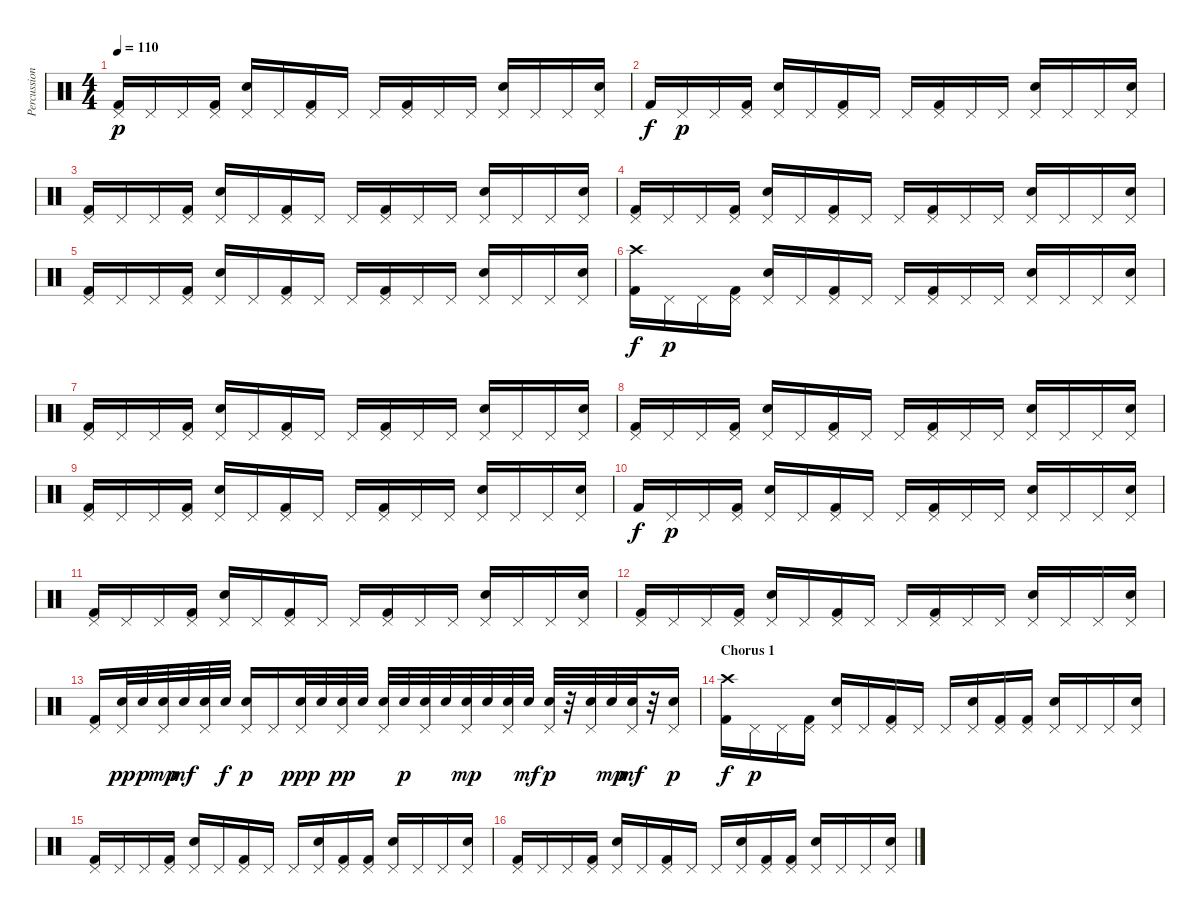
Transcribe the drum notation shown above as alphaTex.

\track ("Percussion" "Percussion") {instrument percussion}
\staff {score}
\articulation defaults
\ts (4 4)
\tempo 110
\clef neutral
\ks c
("Pedal Hi-Hat (hit)" "Kick (hit) 2").16{dy p} "Pedal Hi-Hat (hit)".16 "Pedal Hi-Hat (hit)".16 ("Pedal Hi-Hat (hit)" "Kick (hit) 2").16 ("Pedal Hi-Hat (hit)" "Electric Snare (hit)").16 "Pedal Hi-Hat (hit)".16 ("Pedal Hi-Hat (hit)" "Kick (hit) 2").16 "Pedal Hi-Hat (hit)".16 "Pedal Hi-Hat (hit)".16 ("Pedal Hi-Hat (hit)" "Kick (hit) 2").16 "Pedal Hi-Hat (hit)".16 "Pedal Hi-Hat (hit)".16 ("Pedal Hi-Hat (hit)" "Electric Snare (hit)").16 "Pedal Hi-Hat (hit)".16 "Pedal Hi-Hat (hit)".16 ("Pedal Hi-Hat (hit)" "Electric Snare (hit)").16 |
"Kick (hit) 2".16{dy f} "Pedal Hi-Hat (hit)".16{dy p} "Pedal Hi-Hat (hit)".16 ("Pedal Hi-Hat (hit)" "Kick (hit) 2").16 ("Pedal Hi-Hat (hit)" "Electric Snare (hit)").16 "Pedal Hi-Hat (hit)".16 ("Pedal Hi-Hat (hit)" "Kick (hit) 2").16 "Pedal Hi-Hat (hit)".16 "Pedal Hi-Hat (hit)".16 ("Pedal Hi-Hat (hit)" "Kick (hit) 2").16 "Pedal Hi-Hat (hit)".16 "Pedal Hi-Hat (hit)".16 ("Pedal Hi-Hat (hit)" "Electric Snare (hit)").16 "Pedal Hi-Hat (hit)".16 "Pedal Hi-Hat (hit)".16 ("Pedal Hi-Hat (hit)" "Electric Snare (hit)").16 |
("Pedal Hi-Hat (hit)" "Kick (hit) 2").16 "Pedal Hi-Hat (hit)".16 "Pedal Hi-Hat (hit)".16 ("Pedal Hi-Hat (hit)" "Kick (hit) 2").16 ("Pedal Hi-Hat (hit)" "Electric Snare (hit)").16 "Pedal Hi-Hat (hit)".16 ("Pedal Hi-Hat (hit)" "Kick (hit) 2").16 "Pedal Hi-Hat (hit)".16 "Pedal Hi-Hat (hit)".16 ("Pedal Hi-Hat (hit)" "Kick (hit) 2").16 "Pedal Hi-Hat (hit)".16 "Pedal Hi-Hat (hit)".16 ("Pedal Hi-Hat (hit)" "Electric Snare (hit)").16 "Pedal Hi-Hat (hit)".16 "Pedal Hi-Hat (hit)".16 ("Pedal Hi-Hat (hit)" "Electric Snare (hit)").16 |
("Pedal Hi-Hat (hit)" "Kick (hit) 2").16 "Pedal Hi-Hat (hit)".16 "Pedal Hi-Hat (hit)".16 ("Pedal Hi-Hat (hit)" "Kick (hit) 2").16 ("Pedal Hi-Hat (hit)" "Electric Snare (hit)").16 "Pedal Hi-Hat (hit)".16 ("Pedal Hi-Hat (hit)" "Kick (hit) 2").16 "Pedal Hi-Hat (hit)".16 "Pedal Hi-Hat (hit)".16 ("Pedal Hi-Hat (hit)" "Kick (hit) 2").16 "Pedal Hi-Hat (hit)".16 "Pedal Hi-Hat (hit)".16 ("Pedal Hi-Hat (hit)" "Electric Snare (hit)").16 "Pedal Hi-Hat (hit)".16 "Pedal Hi-Hat (hit)".16 ("Pedal Hi-Hat (hit)" "Electric Snare (hit)").16 |
("Pedal Hi-Hat (hit)" "Kick (hit) 2").16 "Pedal Hi-Hat (hit)".16 "Pedal Hi-Hat (hit)".16 ("Pedal Hi-Hat (hit)" "Kick (hit) 2").16 ("Pedal Hi-Hat (hit)" "Electric Snare (hit)").16 "Pedal Hi-Hat (hit)".16 ("Pedal Hi-Hat (hit)" "Kick (hit) 2").16 "Pedal Hi-Hat (hit)".16 "Pedal Hi-Hat (hit)".16 ("Pedal Hi-Hat (hit)" "Kick (hit) 2").16 "Pedal Hi-Hat (hit)".16 "Pedal Hi-Hat (hit)".16 ("Pedal Hi-Hat (hit)" "Electric Snare (hit)").16 "Pedal Hi-Hat (hit)".16 "Pedal Hi-Hat (hit)".16 ("Pedal Hi-Hat (hit)" "Electric Snare (hit)").16 |
("Crash high (hit)" "Kick (hit) 2").16{dy f volume 16} "Pedal Hi-Hat (hit)".16{dy p} "Pedal Hi-Hat (hit)".16 ("Pedal Hi-Hat (hit)" "Kick (hit) 2").16 ("Pedal Hi-Hat (hit)" "Electric Snare (hit)").16 "Pedal Hi-Hat (hit)".16 ("Pedal Hi-Hat (hit)" "Kick (hit) 2").16 "Pedal Hi-Hat (hit)".16 "Pedal Hi-Hat (hit)".16 ("Pedal Hi-Hat (hit)" "Kick (hit) 2").16 "Pedal Hi-Hat (hit)".16 "Pedal Hi-Hat (hit)".16 ("Pedal Hi-Hat (hit)" "Electric Snare (hit)").16 "Pedal Hi-Hat (hit)".16 "Pedal Hi-Hat (hit)".16 ("Pedal Hi-Hat (hit)" "Electric Snare (hit)").16 |
("Pedal Hi-Hat (hit)" "Kick (hit) 2").16 "Pedal Hi-Hat (hit)".16 "Pedal Hi-Hat (hit)".16 ("Pedal Hi-Hat (hit)" "Kick (hit) 2").16 ("Pedal Hi-Hat (hit)" "Electric Snare (hit)").16 "Pedal Hi-Hat (hit)".16 ("Pedal Hi-Hat (hit)" "Kick (hit) 2").16 "Pedal Hi-Hat (hit)".16 "Pedal Hi-Hat (hit)".16 ("Pedal Hi-Hat (hit)" "Kick (hit) 2").16 "Pedal Hi-Hat (hit)".16 "Pedal Hi-Hat (hit)".16 ("Pedal Hi-Hat (hit)" "Electric Snare (hit)").16 "Pedal Hi-Hat (hit)".16 "Pedal Hi-Hat (hit)".16 ("Pedal Hi-Hat (hit)" "Electric Snare (hit)").16 |
("Pedal Hi-Hat (hit)" "Kick (hit) 2").16 "Pedal Hi-Hat (hit)".16 "Pedal Hi-Hat (hit)".16 ("Pedal Hi-Hat (hit)" "Kick (hit) 2").16 ("Pedal Hi-Hat (hit)" "Electric Snare (hit)").16 "Pedal Hi-Hat (hit)".16 ("Pedal Hi-Hat (hit)" "Kick (hit) 2").16 "Pedal Hi-Hat (hit)".16 "Pedal Hi-Hat (hit)".16 ("Pedal Hi-Hat (hit)" "Kick (hit) 2").16 "Pedal Hi-Hat (hit)".16 "Pedal Hi-Hat (hit)".16 ("Pedal Hi-Hat (hit)" "Electric Snare (hit)").16 "Pedal Hi-Hat (hit)".16 "Pedal Hi-Hat (hit)".16 ("Pedal Hi-Hat (hit)" "Electric Snare (hit)").16 |
("Pedal Hi-Hat (hit)" "Kick (hit) 2").16 "Pedal Hi-Hat (hit)".16 "Pedal Hi-Hat (hit)".16 ("Pedal Hi-Hat (hit)" "Kick (hit) 2").16 ("Pedal Hi-Hat (hit)" "Electric Snare (hit)").16 "Pedal Hi-Hat (hit)".16 ("Pedal Hi-Hat (hit)" "Kick (hit) 2").16 "Pedal Hi-Hat (hit)".16 "Pedal Hi-Hat (hit)".16 ("Pedal Hi-Hat (hit)" "Kick (hit) 2").16 "Pedal Hi-Hat (hit)".16 "Pedal Hi-Hat (hit)".16 ("Pedal Hi-Hat (hit)" "Electric Snare (hit)").16 "Pedal Hi-Hat (hit)".16 "Pedal Hi-Hat (hit)".16 ("Pedal Hi-Hat (hit)" "Electric Snare (hit)").16 |
"Kick (hit) 2".16{dy f} "Pedal Hi-Hat (hit)".16{dy p} "Pedal Hi-Hat (hit)".16 ("Pedal Hi-Hat (hit)" "Kick (hit) 2").16 ("Pedal Hi-Hat (hit)" "Electric Snare (hit)").16 "Pedal Hi-Hat (hit)".16 ("Pedal Hi-Hat (hit)" "Kick (hit) 2").16 "Pedal Hi-Hat (hit)".16 "Pedal Hi-Hat (hit)".16 ("Pedal Hi-Hat (hit)" "Kick (hit) 2").16 "Pedal Hi-Hat (hit)".16 "Pedal Hi-Hat (hit)".16 ("Pedal Hi-Hat (hit)" "Electric Snare (hit)").16 "Pedal Hi-Hat (hit)".16 "Pedal Hi-Hat (hit)".16 ("Pedal Hi-Hat (hit)" "Electric Snare (hit)").16 |
("Pedal Hi-Hat (hit)" "Kick (hit) 2").16 "Pedal Hi-Hat (hit)".16 "Pedal Hi-Hat (hit)".16 ("Pedal Hi-Hat (hit)" "Kick (hit) 2").16 ("Pedal Hi-Hat (hit)" "Electric Snare (hit)").16 "Pedal Hi-Hat (hit)".16 ("Pedal Hi-Hat (hit)" "Kick (hit) 2").16 "Pedal Hi-Hat (hit)".16 "Pedal Hi-Hat (hit)".16 ("Pedal Hi-Hat (hit)" "Kick (hit) 2").16 "Pedal Hi-Hat (hit)".16 "Pedal Hi-Hat (hit)".16 ("Pedal Hi-Hat (hit)" "Electric Snare (hit)").16 "Pedal Hi-Hat (hit)".16 "Pedal Hi-Hat (hit)".16 ("Pedal Hi-Hat (hit)" "Electric Snare (hit)").16 |
("Pedal Hi-Hat (hit)" "Kick (hit) 2").16 "Pedal Hi-Hat (hit)".16 "Pedal Hi-Hat (hit)".16 ("Pedal Hi-Hat (hit)" "Kick (hit) 2").16 ("Pedal Hi-Hat (hit)" "Electric Snare (hit)").16 "Pedal Hi-Hat (hit)".16 ("Pedal Hi-Hat (hit)" "Kick (hit) 2").16 "Pedal Hi-Hat (hit)".16 "Pedal Hi-Hat (hit)".16 ("Pedal Hi-Hat (hit)" "Kick (hit) 2").16 "Pedal Hi-Hat (hit)".16 "Pedal Hi-Hat (hit)".16 ("Pedal Hi-Hat (hit)" "Electric Snare (hit)").16 "Pedal Hi-Hat (hit)".16 "Pedal Hi-Hat (hit)".16 ("Pedal Hi-Hat (hit)" "Electric Snare (hit)").16 |
("Pedal Hi-Hat (hit)" "Kick (hit) 2").16 ("Pedal Hi-Hat (hit)" "Snare (hit)").32{dy pp} "Snare (hit)".32{dy p} ("Pedal Hi-Hat (hit)" "Snare (hit)").32{dy mp} "Snare (hit)".32{dy mf} ("Pedal Hi-Hat (hit)" "Snare (hit)").32 "Snare (hit)".32{dy f} ("Pedal Hi-Hat (hit)" "Electric Snare (hit)").16{dy p} "Pedal Hi-Hat (hit)".16 ("Pedal Hi-Hat (hit)" "Electric Snare (hit)").32{dy ppp} "Electric Snare (hit)".32 ("Pedal Hi-Hat (hit)" "Electric Snare (hit)").32{dy pp} "Electric Snare (hit)".32 ("Pedal Hi-Hat (hit)" "Electric Snare (hit)").32 "Electric Snare (hit)".32{dy p} ("Pedal Hi-Hat (hit)" "Electric Snare (hit)").32 "Electric Snare (hit)".32 ("Pedal Hi-Hat (hit)" "Electric Snare (hit)").32{dy mp} "Electric Snare (hit)".32 ("Pedal Hi-Hat (hit)" "Electric Snare (hit)").32 "Electric Snare (hit)".32{dy mf} ("Pedal Hi-Hat (hit)" "Electric Snare (hit)").32{dy p} r.32 ("Pedal Hi-Hat (hit)" "Snare (hit)").32 "Snare (hit)".32{dy mp} ("Pedal Hi-Hat (hit)" "Snare (hit)").32{dy mf} r.32 ("Pedal Hi-Hat (hit)" "Electric Snare (hit)").16{dy p} |
\section ("" "Chorus 1")
("Crash high (hit)" "Kick (hit) 2").16{dy f volume 16} "Pedal Hi-Hat (hit)".16{dy p} "Pedal Hi-Hat (hit)".16 ("Pedal Hi-Hat (hit)" "Kick (hit) 2").16 ("Pedal Hi-Hat (hit)" "Electric Snare (hit)").16 "Pedal Hi-Hat (hit)".16 ("Pedal Hi-Hat (hit)" "Kick (hit) 2").16 "Pedal Hi-Hat (hit)".16 "Pedal Hi-Hat (hit)".16 ("Pedal Hi-Hat (hit)" "Electric Snare (hit)").16 ("Pedal Hi-Hat (hit)" "Kick (hit) 2").16 ("Pedal Hi-Hat (hit)" "Kick (hit) 2").16 ("Pedal Hi-Hat (hit)" "Electric Snare (hit)").16 "Pedal Hi-Hat (hit)".16 "Pedal Hi-Hat (hit)".16 ("Pedal Hi-Hat (hit)" "Electric Snare (hit)").16 |
("Pedal Hi-Hat (hit)" "Kick (hit) 2").16 "Pedal Hi-Hat (hit)".16 "Pedal Hi-Hat (hit)".16 ("Pedal Hi-Hat (hit)" "Kick (hit) 2").16 ("Pedal Hi-Hat (hit)" "Electric Snare (hit)").16 "Pedal Hi-Hat (hit)".16 ("Pedal Hi-Hat (hit)" "Kick (hit) 2").16 "Pedal Hi-Hat (hit)".16 "Pedal Hi-Hat (hit)".16 ("Pedal Hi-Hat (hit)" "Electric Snare (hit)").16 ("Pedal Hi-Hat (hit)" "Kick (hit) 2").16 ("Pedal Hi-Hat (hit)" "Kick (hit) 2").16 ("Pedal Hi-Hat (hit)" "Electric Snare (hit)").16 "Pedal Hi-Hat (hit)".16 "Pedal Hi-Hat (hit)".16 ("Pedal Hi-Hat (hit)" "Electric Snare (hit)").16 |
("Pedal Hi-Hat (hit)" "Kick (hit) 2").16 "Pedal Hi-Hat (hit)".16 "Pedal Hi-Hat (hit)".16 ("Pedal Hi-Hat (hit)" "Kick (hit) 2").16 ("Pedal Hi-Hat (hit)" "Electric Snare (hit)").16 "Pedal Hi-Hat (hit)".16 ("Pedal Hi-Hat (hit)" "Kick (hit) 2").16 "Pedal Hi-Hat (hit)".16 "Pedal Hi-Hat (hit)".16 ("Pedal Hi-Hat (hit)" "Electric Snare (hit)").16 ("Pedal Hi-Hat (hit)" "Kick (hit) 2").16 ("Pedal Hi-Hat (hit)" "Kick (hit) 2").16 ("Pedal Hi-Hat (hit)" "Electric Snare (hit)").16 "Pedal Hi-Hat (hit)".16 "Pedal Hi-Hat (hit)".16 ("Pedal Hi-Hat (hit)" "Electric Snare (hit)").16
